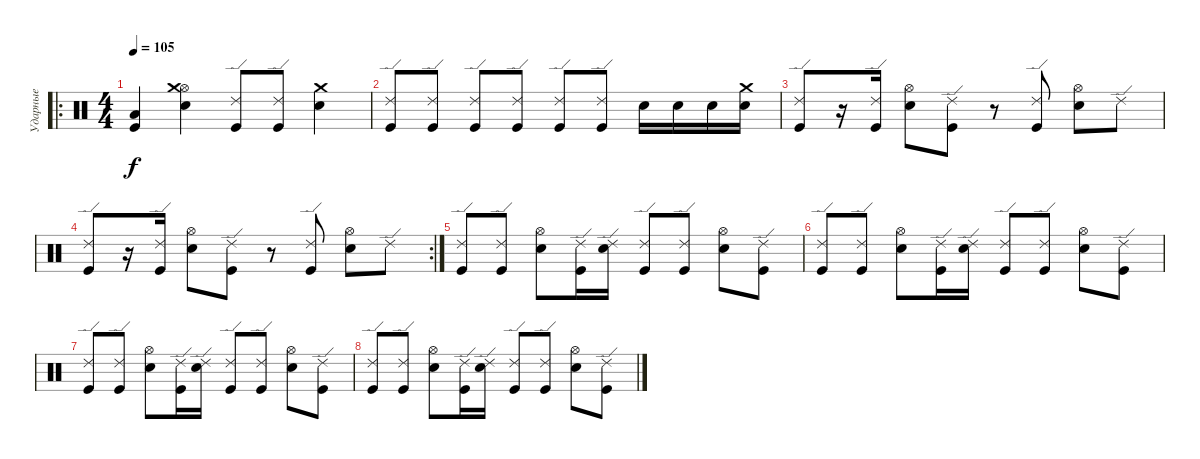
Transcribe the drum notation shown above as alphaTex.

\track ("Ударные" "Ударные") {instrument percussion}
\staff {score}
\articulation defaults
\ro
\ts (4 4)
\tempo 105
\clef neutral
\ks c
("Low Floor Tom (hit)" "Kick (hit)").4{dy f} ("Hi-Hat (open)" "Crash medium (hit)" "Electric Snare (hit)").4 ("Ride (edge) 2" "Kick (hit)").8 ("Ride (edge) 2" "Kick (hit)").8 ("Crash medium (hit)" "Electric Snare (hit)").4 |
("Ride (edge) 2" "Kick (hit)").8 ("Ride (edge) 2" "Kick (hit)").8 ("Ride (edge) 2" "Kick (hit)").8 ("Ride (edge) 2" "Kick (hit)").8 ("Ride (edge) 2" "Kick (hit)").8 ("Ride (edge) 2" "Kick (hit)").8 "Electric Snare (hit)".16 "Electric Snare (hit)".16 "Electric Snare (hit)".16 ("Crash medium (hit)" "Electric Snare (hit)").16 |
("Ride (edge) 2" "Kick (hit)").8 r.16 ("Ride (edge) 2" "Kick (hit)").16 ("Hi-Hat (open)" "Electric Snare (hit)").8 ("Ride (edge) 2" "Kick (hit)").8 r.8 ("Ride (edge) 2" "Kick (hit)").8 ("Hi-Hat (open)" "Electric Snare (hit)").8 "Ride (edge) 2".8 |
\rc 2
("Ride (edge) 2" "Kick (hit)").8 r.16 ("Ride (edge) 2" "Kick (hit)").16 ("Hi-Hat (open)" "Electric Snare (hit)").8 ("Ride (edge) 2" "Kick (hit)").8 r.8 ("Ride (edge) 2" "Kick (hit)").8 ("Hi-Hat (open)" "Electric Snare (hit)").8 "Ride (edge) 2".8 |
("Ride (edge) 2" "Kick (hit)").8 ("Ride (edge) 2" "Kick (hit)").8 ("Hi-Hat (open)" "Electric Snare (hit)").8 ("Ride (edge) 2" "Kick (hit)").16 ("Ride (edge) 2" "Electric Snare (hit)").16 ("Ride (edge) 2" "Kick (hit)").8 ("Ride (edge) 2" "Kick (hit)").8 ("Hi-Hat (open)" "Electric Snare (hit)").8 ("Ride (edge) 2" "Kick (hit)").8 |
("Ride (edge) 2" "Kick (hit)").8 ("Ride (edge) 2" "Kick (hit)").8 ("Hi-Hat (open)" "Electric Snare (hit)").8 ("Ride (edge) 2" "Kick (hit)").16 ("Ride (edge) 2" "Electric Snare (hit)").16 ("Ride (edge) 2" "Kick (hit)").8 ("Ride (edge) 2" "Kick (hit)").8 ("Hi-Hat (open)" "Electric Snare (hit)").8 ("Ride (edge) 2" "Kick (hit)").8 |
("Ride (edge) 2" "Kick (hit)").8 ("Ride (edge) 2" "Kick (hit)").8 ("Hi-Hat (open)" "Electric Snare (hit)").8 ("Ride (edge) 2" "Kick (hit)").16 ("Ride (edge) 2" "Electric Snare (hit)").16 ("Ride (edge) 2" "Kick (hit)").8 ("Ride (edge) 2" "Kick (hit)").8 ("Hi-Hat (open)" "Electric Snare (hit)").8 ("Ride (edge) 2" "Kick (hit)").8 |
("Ride (edge) 2" "Kick (hit)").8 ("Ride (edge) 2" "Kick (hit)").8 ("Hi-Hat (open)" "Electric Snare (hit)").8 ("Ride (edge) 2" "Kick (hit)").16 ("Ride (edge) 2" "Electric Snare (hit)").16 ("Ride (edge) 2" "Kick (hit)").8 ("Ride (edge) 2" "Kick (hit)").8 ("Hi-Hat (open)" "Electric Snare (hit)").8 ("Ride (edge) 2" "Kick (hit)").8
